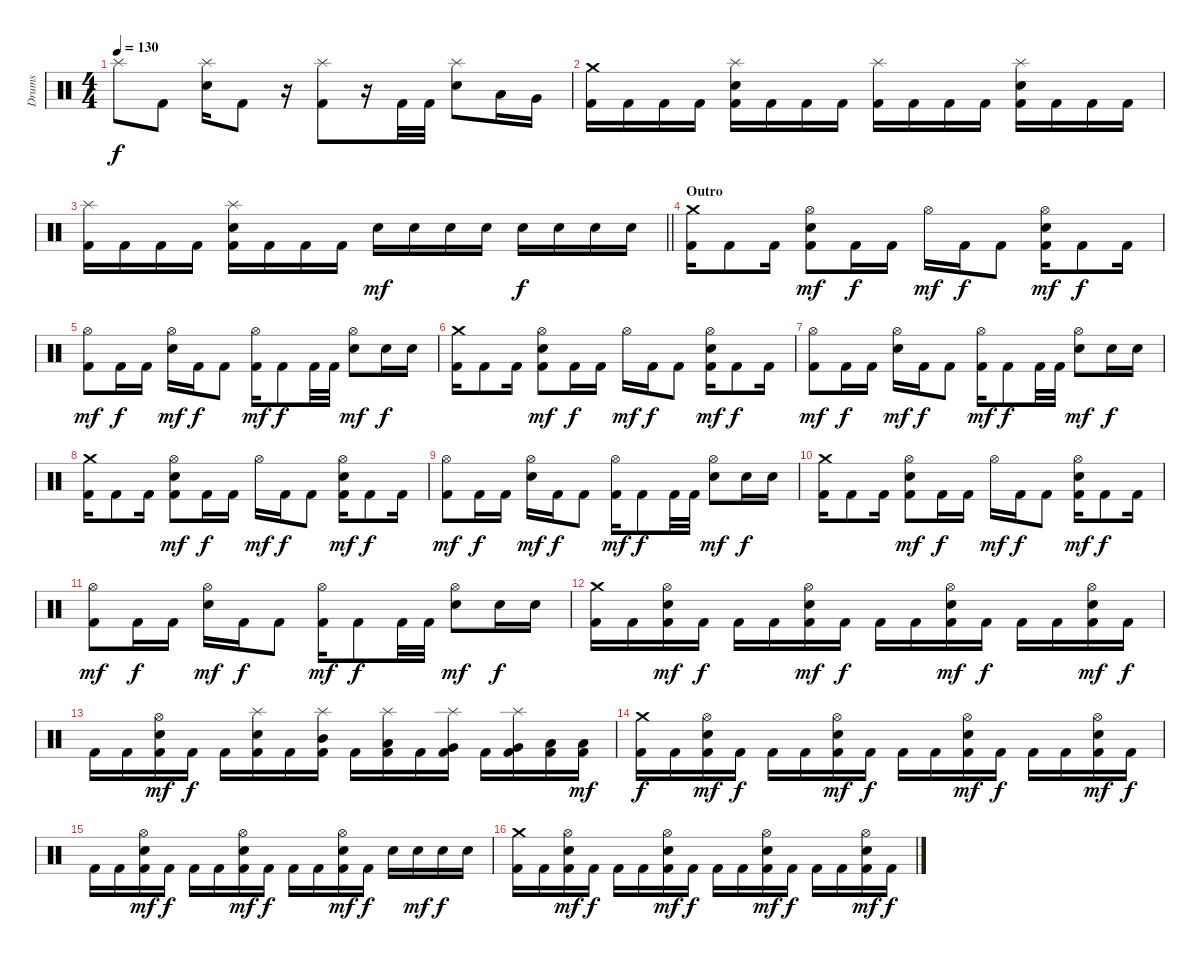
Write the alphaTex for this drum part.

\track ("Drums" "Drums") {instrument percussion}
\staff {score}
\articulation defaults
\ts (4 4)
\tempo 130
\clef neutral
\ks c "Splash (hit)".8{dy f} "Kick (hit) 2".8
("Splash (hit)" "Electric Snare (hit)").16 "Kick (hit) 2".8 r.16 ("Kick (hit) 2" "Splash (hit)").8 r.16 "Kick (hit) 2".32 "Kick (hit) 2".32 ("Splash (hit)" "Electric Snare (hit)").8 "Low Tom (hit)".16 "Very Low Tom (hit)".16 |
("Kick (hit) 2" "Crash medium (hit)").16 "Kick (hit) 2".16 "Kick (hit) 2".16 "Kick (hit) 2".16 ("Kick (hit) 2" "Splash (hit)" "Electric Snare (hit)").16 "Kick (hit) 2".16 "Kick (hit) 2".16 "Kick (hit) 2".16 ("Kick (hit) 2" "Splash (hit)").16 "Kick (hit) 2".16 "Kick (hit) 2".16 "Kick (hit) 2".16 ("Kick (hit) 2" "Splash (hit)" "Electric Snare (hit)").16 "Kick (hit) 2".16 "Kick (hit) 2".16 "Kick (hit) 2".16 |
\barLineRight lightlight
("Kick (hit) 2" "Splash (hit)").16 "Kick (hit) 2".16 "Kick (hit) 2".16 "Kick (hit) 2".16 ("Kick (hit) 2" "Splash (hit)" "Electric Snare (hit)").16 "Kick (hit) 2".16 "Kick (hit) 2".16 "Kick (hit) 2".16 "Electric Snare (hit)".16{dy mf} "Electric Snare (hit)".16 "Electric Snare (hit)".16 "Electric Snare (hit)".16 "Electric Snare (hit)".16{dy f} "Electric Snare (hit)".16 "Electric Snare (hit)".16 "Electric Snare (hit)".16 |
\section ("" "Outro")
("Kick (hit) 2" "Crash medium (hit)").16 "Kick (hit) 2".8 "Kick (hit) 2".16 ("Kick (hit) 2" "Hi-Hat (open)" "Electric Snare (hit)").8{dy mf} "Kick (hit) 2".16{dy f} "Kick (hit) 2".16 "Hi-Hat (open)".16{dy mf} "Kick (hit) 2".16{dy f} "Kick (hit) 2".8 ("Kick (hit) 2" "Hi-Hat (open)" "Electric Snare (hit)").16{dy mf} "Kick (hit) 2".8{dy f} "Kick (hit) 2".16 |
("Kick (hit) 2" "Hi-Hat (open)").8{dy mf} "Kick (hit) 2".16{dy f} "Kick (hit) 2".16 ("Hi-Hat (open)" "Electric Snare (hit)").16{dy mf} "Kick (hit) 2".16{dy f} "Kick (hit) 2".8 ("Kick (hit) 2" "Hi-Hat (open)").16{dy mf} "Kick (hit) 2".8{dy f} "Kick (hit) 2".32 "Kick (hit) 2".32 ("Hi-Hat (open)" "Electric Snare (hit)").8{dy mf} "Electric Snare (hit)".16{dy f} "Electric Snare (hit)".16 |
("Kick (hit) 2" "Crash medium (hit)").16 "Kick (hit) 2".8 "Kick (hit) 2".16 ("Kick (hit) 2" "Hi-Hat (open)" "Electric Snare (hit)").8{dy mf} "Kick (hit) 2".16{dy f} "Kick (hit) 2".16 "Hi-Hat (open)".16{dy mf} "Kick (hit) 2".16{dy f} "Kick (hit) 2".8 ("Kick (hit) 2" "Hi-Hat (open)" "Electric Snare (hit)").16{dy mf} "Kick (hit) 2".8{dy f} "Kick (hit) 2".16 |
("Kick (hit) 2" "Hi-Hat (open)").8{dy mf} "Kick (hit) 2".16{dy f} "Kick (hit) 2".16 ("Hi-Hat (open)" "Electric Snare (hit)").16{dy mf} "Kick (hit) 2".16{dy f} "Kick (hit) 2".8 ("Kick (hit) 2" "Hi-Hat (open)").16{dy mf} "Kick (hit) 2".8{dy f} "Kick (hit) 2".32 "Kick (hit) 2".32 ("Hi-Hat (open)" "Electric Snare (hit)").8{dy mf} "Electric Snare (hit)".16{dy f} "Electric Snare (hit)".16 |
("Kick (hit) 2" "Crash medium (hit)").16 "Kick (hit) 2".8 "Kick (hit) 2".16 ("Kick (hit) 2" "Hi-Hat (open)" "Electric Snare (hit)").8{dy mf} "Kick (hit) 2".16{dy f} "Kick (hit) 2".16 "Hi-Hat (open)".16{dy mf} "Kick (hit) 2".16{dy f} "Kick (hit) 2".8 ("Kick (hit) 2" "Hi-Hat (open)" "Electric Snare (hit)").16{dy mf} "Kick (hit) 2".8{dy f} "Kick (hit) 2".16 |
("Kick (hit) 2" "Hi-Hat (open)").8{dy mf} "Kick (hit) 2".16{dy f} "Kick (hit) 2".16 ("Hi-Hat (open)" "Electric Snare (hit)").16{dy mf} "Kick (hit) 2".16{dy f} "Kick (hit) 2".8 ("Kick (hit) 2" "Hi-Hat (open)").16{dy mf} "Kick (hit) 2".8{dy f} "Kick (hit) 2".32 "Kick (hit) 2".32 ("Hi-Hat (open)" "Electric Snare (hit)").8{dy mf} "Electric Snare (hit)".16{dy f} "Electric Snare (hit)".16 |
("Kick (hit) 2" "Crash medium (hit)").16 "Kick (hit) 2".8 "Kick (hit) 2".16 ("Kick (hit) 2" "Hi-Hat (open)" "Electric Snare (hit)").8{dy mf} "Kick (hit) 2".16{dy f} "Kick (hit) 2".16 "Hi-Hat (open)".16{dy mf} "Kick (hit) 2".16{dy f} "Kick (hit) 2".8 ("Kick (hit) 2" "Hi-Hat (open)" "Electric Snare (hit)").16{dy mf} "Kick (hit) 2".8{dy f} "Kick (hit) 2".16 |
("Kick (hit) 2" "Hi-Hat (open)").8{dy mf} "Kick (hit) 2".16{dy f} "Kick (hit) 2".16 ("Hi-Hat (open)" "Electric Snare (hit)").16{dy mf} "Kick (hit) 2".16{dy f} "Kick (hit) 2".8 ("Kick (hit) 2" "Hi-Hat (open)").16{dy mf} "Kick (hit) 2".8{dy f} "Kick (hit) 2".32 "Kick (hit) 2".32 ("Hi-Hat (open)" "Electric Snare (hit)").8{dy mf} "Electric Snare (hit)".16{dy f} "Electric Snare (hit)".16 |
("Kick (hit) 2" "Crash medium (hit)").16 "Kick (hit) 2".16 ("Kick (hit) 2" "Hi-Hat (open)" "Electric Snare (hit)").16{dy mf} "Kick (hit) 2".16{dy f} "Kick (hit) 2".16 "Kick (hit) 2".16 ("Kick (hit) 2" "Hi-Hat (open)" "Electric Snare (hit)").16{dy mf} "Kick (hit) 2".16{dy f} "Kick (hit) 2".16 "Kick (hit) 2".16 ("Kick (hit) 2" "Hi-Hat (open)" "Electric Snare (hit)").16{dy mf} "Kick (hit) 2".16{dy f} "Kick (hit) 2".16 "Kick (hit) 2".16 ("Kick (hit) 2" "Hi-Hat (open)" "Electric Snare (hit)").16{dy mf} "Kick (hit) 2".16{dy f} |
"Kick (hit) 2".16 "Kick (hit) 2".16 ("Kick (hit) 2" "Hi-Hat (open)" "Electric Snare (hit)").16{dy mf} "Kick (hit) 2".16{dy f} "Kick (hit) 2".16 ("Kick (hit) 2" "Splash (hit)" "Electric Snare (hit)").16 "Kick (hit) 2".16 ("Kick (hit) 2" "Splash (hit)" "Mid Tom (hit)").16 "Kick (hit) 2".16 ("Kick (hit) 2" "Splash (hit)" "Low Tom (hit)").16 "Kick (hit) 2".16 ("Kick (hit) 2" "Splash (hit)" "Very Low Tom (hit)").16 "Kick (hit) 2".16 ("Kick (hit) 2" "Splash (hit)" "Very Low Tom (hit)").16 ("Kick (hit) 2" "Low Floor Tom (hit)").16 ("Kick (hit) 2" "Low Floor Tom (hit)").16{dy mf} |
("Kick (hit) 2" "Crash medium (hit)").16{dy f} "Kick (hit) 2".16 ("Kick (hit) 2" "Hi-Hat (open)" "Electric Snare (hit)").16{dy mf} "Kick (hit) 2".16{dy f} "Kick (hit) 2".16 "Kick (hit) 2".16 ("Kick (hit) 2" "Hi-Hat (open)" "Electric Snare (hit)").16{dy mf} "Kick (hit) 2".16{dy f} "Kick (hit) 2".16 "Kick (hit) 2".16 ("Kick (hit) 2" "Hi-Hat (open)" "Electric Snare (hit)").16{dy mf} "Kick (hit) 2".16{dy f} "Kick (hit) 2".16 "Kick (hit) 2".16 ("Kick (hit) 2" "Hi-Hat (open)" "Electric Snare (hit)").16{dy mf} "Kick (hit) 2".16{dy f} |
"Kick (hit) 2".16 "Kick (hit) 2".16 ("Kick (hit) 2" "Hi-Hat (open)" "Electric Snare (hit)").16{dy mf} "Kick (hit) 2".16{dy f} "Kick (hit) 2".16 "Kick (hit) 2".16 ("Kick (hit) 2" "Hi-Hat (open)" "Electric Snare (hit)").16{dy mf} "Kick (hit) 2".16{dy f} "Kick (hit) 2".16 "Kick (hit) 2".16 ("Kick (hit) 2" "Hi-Hat (open)" "Electric Snare (hit)").16{dy mf} "Kick (hit) 2".16{dy f} "Electric Snare (hit)".16 "Electric Snare (hit)".16{dy mf} "Electric Snare (hit)".16{dy f} "Electric Snare (hit)".16 |
("Kick (hit) 2" "Crash medium (hit)").16 "Kick (hit) 2".16 ("Kick (hit) 2" "Hi-Hat (open)" "Electric Snare (hit)").16{dy mf} "Kick (hit) 2".16{dy f} "Kick (hit) 2".16 "Kick (hit) 2".16 ("Kick (hit) 2" "Hi-Hat (open)" "Electric Snare (hit)").16{dy mf} "Kick (hit) 2".16{dy f} "Kick (hit) 2".16 "Kick (hit) 2".16 ("Kick (hit) 2" "Hi-Hat (open)" "Electric Snare (hit)").16{dy mf} "Kick (hit) 2".16{dy f} "Kick (hit) 2".16 "Kick (hit) 2".16 ("Kick (hit) 2" "Hi-Hat (open)" "Electric Snare (hit)").16{dy mf} "Kick (hit) 2".16{dy f}
